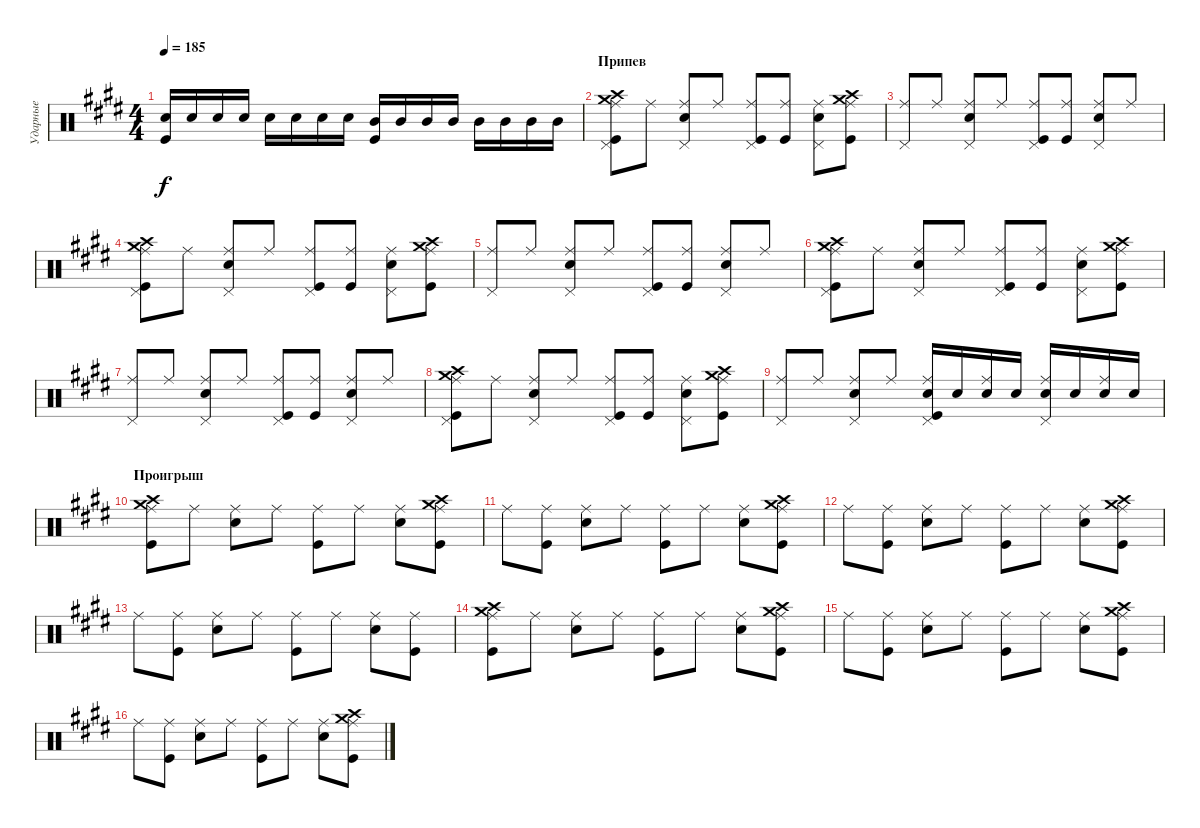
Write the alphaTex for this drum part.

\track ("Ударные" "Ударные") {instrument percussion}
\staff {score}
\articulation defaults
\ts (4 4)
\tempo 185
\clef neutral
\ks c#minor
("Electric Snare (hit)" "Kick (hit)").16{dy f} "Electric Snare (hit)".16 "Electric Snare (hit)".16 "Electric Snare (hit)".16 "Electric Snare (hit)".16 "Electric Snare (hit)".16 "Electric Snare (hit)".16 "Electric Snare (hit)".16 ("Mid Tom (hit)" "Kick (hit)").16 "Mid Tom (hit)".16 "Mid Tom (hit)".16 "Mid Tom (hit)".16 "Mid Tom (hit)".16 "Mid Tom (hit)".16 "Mid Tom (hit)".16 "Mid Tom (hit)".16 |
\section ("" "Припев")
("Ride (middle)" "Pedal Hi-Hat (hit)" "Crash medium (hit)" "Crash high (hit)" "Kick (hit)").8 "Ride (middle)".8 ("Ride (middle)" "Pedal Hi-Hat (hit)" "Electric Snare (hit)").8 "Ride (middle)".8 ("Ride (middle)" "Pedal Hi-Hat (hit)" "Kick (hit)").8 ("Kick (hit)" "Ride (middle)").8 ("Ride (middle)" "Pedal Hi-Hat (hit)" "Electric Snare (hit)").8 ("Kick (hit)" "Crash high (hit)" "Crash medium (hit)" "Ride (middle)").8 |
("Pedal Hi-Hat (hit)" "Ride (middle)").8 "Ride (middle)".8 ("Ride (middle)" "Electric Snare (hit)" "Pedal Hi-Hat (hit)").8 "Ride (middle)".8 ("Ride (middle)" "Kick (hit)" "Pedal Hi-Hat (hit)").8 ("Ride (middle)" "Kick (hit)").8 ("Pedal Hi-Hat (hit)" "Ride (middle)" "Electric Snare (hit)").8 "Ride (middle)".8 |
("Kick (hit)" "Pedal Hi-Hat (hit)" "Ride (middle)" "Crash high (hit)" "Crash medium (hit)").8 "Ride (middle)".8 ("Electric Snare (hit)" "Pedal Hi-Hat (hit)" "Ride (middle)").8 "Ride (middle)".8 ("Kick (hit)" "Pedal Hi-Hat (hit)" "Ride (middle)").8 ("Kick (hit)" "Ride (middle)").8 ("Electric Snare (hit)" "Pedal Hi-Hat (hit)" "Ride (middle)").8 ("Crash medium (hit)" "Crash high (hit)" "Kick (hit)" "Ride (middle)").8 |
("Ride (middle)" "Pedal Hi-Hat (hit)").8 "Ride (middle)".8 ("Ride (middle)" "Pedal Hi-Hat (hit)" "Electric Snare (hit)").8 "Ride (middle)".8 ("Kick (hit)" "Ride (middle)" "Pedal Hi-Hat (hit)").8 ("Kick (hit)" "Ride (middle)").8 ("Ride (middle)" "Pedal Hi-Hat (hit)" "Electric Snare (hit)").8 "Ride (middle)".8 |
("Ride (middle)" "Pedal Hi-Hat (hit)" "Crash medium (hit)" "Crash high (hit)" "Kick (hit)").8 "Ride (middle)".8 ("Ride (middle)" "Pedal Hi-Hat (hit)" "Electric Snare (hit)").8 "Ride (middle)".8 ("Ride (middle)" "Pedal Hi-Hat (hit)" "Kick (hit)").8 ("Kick (hit)" "Ride (middle)").8 ("Ride (middle)" "Pedal Hi-Hat (hit)" "Electric Snare (hit)").8 ("Kick (hit)" "Crash high (hit)" "Crash medium (hit)" "Ride (middle)").8 |
("Ride (middle)" "Pedal Hi-Hat (hit)").8 "Ride (middle)".8 ("Ride (middle)" "Pedal Hi-Hat (hit)" "Electric Snare (hit)").8 "Ride (middle)".8 ("Kick (hit)" "Ride (middle)" "Pedal Hi-Hat (hit)").8 ("Kick (hit)" "Ride (middle)").8 ("Ride (middle)" "Pedal Hi-Hat (hit)" "Electric Snare (hit)").8 "Ride (middle)".8 |
("Kick (hit)" "Pedal Hi-Hat (hit)" "Ride (middle)" "Crash high (hit)" "Crash medium (hit)").8 "Ride (middle)".8 ("Electric Snare (hit)" "Pedal Hi-Hat (hit)" "Ride (middle)").8 "Ride (middle)".8 ("Kick (hit)" "Pedal Hi-Hat (hit)" "Ride (middle)").8 ("Kick (hit)" "Ride (middle)").8 ("Electric Snare (hit)" "Pedal Hi-Hat (hit)" "Ride (middle)").8 ("Crash medium (hit)" "Crash high (hit)" "Kick (hit)" "Ride (middle)").8 |
("Ride (middle)" "Pedal Hi-Hat (hit)").8 "Ride (middle)".8 ("Ride (middle)" "Pedal Hi-Hat (hit)" "Electric Snare (hit)").8 "Ride (middle)".8 ("Electric Snare (hit)" "Kick (hit)" "Ride (middle)" "Pedal Hi-Hat (hit)").16 "Electric Snare (hit)".16 ("Electric Snare (hit)" "Ride (middle)").16 "Electric Snare (hit)".16 ("Electric Snare (hit)" "Ride (middle)" "Pedal Hi-Hat (hit)").16 "Electric Snare (hit)".16 ("Electric Snare (hit)" "Ride (middle)").16 "Electric Snare (hit)".16 |
\section ("" "Проигрыш")
("Ride (middle)" "Kick (hit)" "Crash high (hit)" "Crash medium (hit)").8 "Ride (middle)".8 ("Electric Snare (hit)" "Ride (middle)").8 "Ride (middle)".8 ("Ride (middle)" "Kick (hit)").8 "Ride (middle)".8 ("Ride (middle)" "Electric Snare (hit)").8 ("Ride (middle)" "Kick (hit)" "Crash high (hit)" "Crash medium (hit)").8 |
"Ride (middle)".8 ("Ride (middle)" "Kick (hit)").8 ("Ride (middle)" "Electric Snare (hit)").8 "Ride (middle)".8 ("Kick (hit)" "Ride (middle)").8 "Ride (middle)".8 ("Electric Snare (hit)" "Ride (middle)").8 ("Crash medium (hit)" "Ride (middle)" "Kick (hit)" "Crash high (hit)").8 |
"Ride (middle)".8 ("Ride (middle)" "Kick (hit)").8 ("Ride (middle)" "Electric Snare (hit)").8 "Ride (middle)".8 ("Kick (hit)" "Ride (middle)").8 "Ride (middle)".8 ("Electric Snare (hit)" "Ride (middle)").8 ("Crash medium (hit)" "Ride (middle)" "Kick (hit)" "Crash high (hit)").8 |
"Ride (middle)".8 ("Ride (middle)" "Kick (hit)").8 ("Ride (middle)" "Electric Snare (hit)").8 "Ride (middle)".8 ("Kick (hit)" "Ride (middle)").8 "Ride (middle)".8 ("Electric Snare (hit)" "Ride (middle)").8 ("Ride (middle)" "Kick (hit)").8 |
("Ride (middle)" "Kick (hit)" "Crash high (hit)" "Crash medium (hit)").8 "Ride (middle)".8 ("Electric Snare (hit)" "Ride (middle)").8 "Ride (middle)".8 ("Ride (middle)" "Kick (hit)").8 "Ride (middle)".8 ("Ride (middle)" "Electric Snare (hit)").8 ("Ride (middle)" "Kick (hit)" "Crash high (hit)" "Crash medium (hit)").8 |
"Ride (middle)".8 ("Ride (middle)" "Kick (hit)").8 ("Ride (middle)" "Electric Snare (hit)").8 "Ride (middle)".8 ("Kick (hit)" "Ride (middle)").8 "Ride (middle)".8 ("Electric Snare (hit)" "Ride (middle)").8 ("Crash medium (hit)" "Ride (middle)" "Kick (hit)" "Crash high (hit)").8 |
"Ride (middle)".8 ("Ride (middle)" "Kick (hit)").8 ("Ride (middle)" "Electric Snare (hit)").8 "Ride (middle)".8 ("Kick (hit)" "Ride (middle)").8 "Ride (middle)".8 ("Electric Snare (hit)" "Ride (middle)").8 ("Crash medium (hit)" "Ride (middle)" "Kick (hit)" "Crash high (hit)").8
